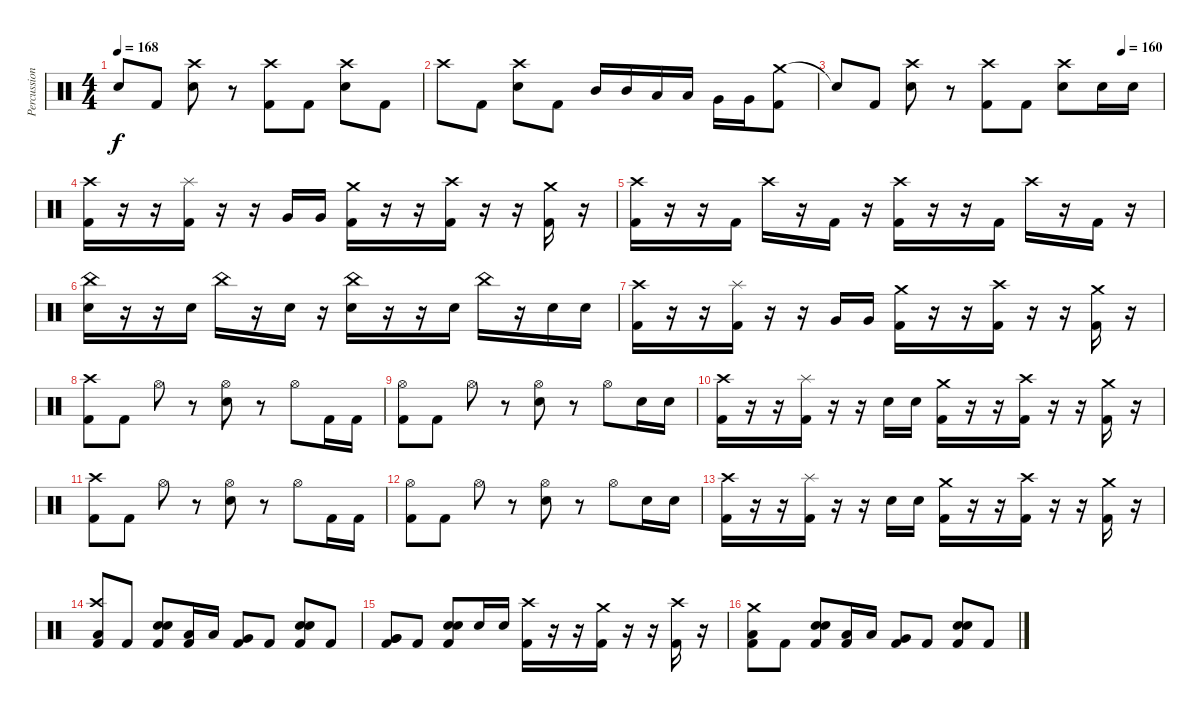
\track ("Percussion" "Percussion") {instrument percussion}
\staff {score}
\articulation defaults
\ts (4 4)
\tempo 168
\clef neutral
\ks c "Snare (hit)"{t}.8{dy f} "Kick (hit) 2".8
("Crash high (hit)" "Electric Snare (hit)").8 r.8 ("Crash high (hit)" "Kick (hit) 2").8 "Kick (hit) 2".8 ("Crash high (hit)" "Electric Snare (hit)").8 "Kick (hit) 2".8 |
"Crash high (hit)".8 "Kick (hit) 2".8 ("Crash high (hit)" "Electric Snare (hit)").8 "Kick (hit) 2".8 "Mid Tom (hit)".16 "Mid Tom (hit)".16 "Low Tom (hit)".16 "Low Tom (hit)".16 "Very Low Tom (hit)".16 "Very Low Tom (hit)".16 ("Crash medium (hit)" "Kick (hit) 2").8 |
\tempo (160 0.875)
"Snare (hit)"{t}.8 "Kick (hit) 2".8 ("Crash high (hit)" "Electric Snare (hit)").8 r.8 ("Crash high (hit)" "Kick (hit) 2").8 "Kick (hit) 2".8 ("Crash high (hit)" "Electric Snare (hit)").8 "Electric Snare (hit)".16 "Electric Snare (hit)".16 |
("Crash high (hit)" "Kick (hit) 2").16 r.16 r.16 ("Splash (hit)" "Kick (hit) 2").16 r.16 r.16 "Very Low Tom (hit)".16 "Very Low Tom (hit)".16 ("Crash medium (hit)" "Kick (hit) 2").16 r.16 r.16 ("Crash high (hit)" "Kick (hit) 2").16 r.16 r.16 ("Crash medium (hit)" "Kick (hit) 2").16 r.16 |
("Crash high (hit)" "Kick (hit) 2").16 r.16 r.16 "Kick (hit) 2".16 "Crash high (hit)".16 r.16 "Kick (hit) 2".16 r.16 ("Crash high (hit)" "Kick (hit) 2").16 r.16 r.16 "Kick (hit) 2".16 "Crash high (hit)".16 r.16 "Kick (hit) 2".16 r.16 |
("China (hit)" "Electric Snare (hit)").16 r.16 r.16 "Electric Snare (hit)".16 "China (hit)".16 r.16 "Electric Snare (hit)".16 r.16 ("China (hit)" "Electric Snare (hit)").16 r.16 r.16 "Electric Snare (hit)".16 "China (hit)".16 r.16 "Electric Snare (hit)".16 "Electric Snare (hit)".16 |
("Crash high (hit)" "Kick (hit) 2").16 r.16 r.16 ("Splash (hit)" "Kick (hit) 2").16 r.16 r.16 "Very Low Tom (hit)".16 "Very Low Tom (hit)".16 ("Crash medium (hit)" "Kick (hit) 2").16 r.16 r.16 ("Crash high (hit)" "Kick (hit) 2").16 r.16 r.16 ("Crash medium (hit)" "Kick (hit) 2").16 r.16 |
("Crash high (hit)" "Kick (hit) 2").8 "Kick (hit) 2".8 "Hi-Hat (open)".8 r.8 ("Hi-Hat (open)" "Electric Snare (hit)").8 r.8 "Hi-Hat (open)".8 "Kick (hit) 2".16 "Kick (hit) 2".16 |
("Hi-Hat (open)" "Kick (hit) 2").8 "Kick (hit) 2".8 "Hi-Hat (open)".8 r.8 ("Hi-Hat (open)" "Electric Snare (hit)").8 r.8 "Hi-Hat (open)".8 "Electric Snare (hit)".16 "Electric Snare (hit)".16 |
("Crash high (hit)" "Kick (hit) 2").16 r.16 r.16 ("Splash (hit)" "Kick (hit) 2").16 r.16 r.16 "Electric Snare (hit)".16 "Electric Snare (hit)".16 ("Crash medium (hit)" "Kick (hit) 2").16 r.16 r.16 ("Crash high (hit)" "Kick (hit) 2").16 r.16 r.16 ("Crash medium (hit)" "Kick (hit) 2").16 r.16 |
("Crash high (hit)" "Kick (hit) 2").8 "Kick (hit) 2".8 "Hi-Hat (open)".8 r.8 ("Hi-Hat (open)" "Electric Snare (hit)").8 r.8 "Hi-Hat (open)".8 "Kick (hit) 2".16 "Kick (hit) 2".16 |
("Hi-Hat (open)" "Kick (hit) 2").8 "Kick (hit) 2".8 "Hi-Hat (open)".8 r.8 ("Hi-Hat (open)" "Electric Snare (hit)").8 r.8 "Hi-Hat (open)".8 "Electric Snare (hit)".16 "Electric Snare (hit)".16 |
("Crash high (hit)" "Kick (hit) 2").16 r.16 r.16 ("Splash (hit)" "Kick (hit) 2").16 r.16 r.16 "Electric Snare (hit)".16 "Electric Snare (hit)".16 ("Crash medium (hit)" "Kick (hit) 2").16 r.16 r.16 ("Crash high (hit)" "Kick (hit) 2").16 r.16 r.16 ("Crash medium (hit)" "Kick (hit) 2").16 r.16 |
("Crash high (hit)" "Low Tom (hit)" "Kick (hit) 2").8 "Kick (hit) 2".8 ("Electric Snare (hit)" "Electric Snare (hit)" "Kick (hit) 2").8 ("Low Tom (hit)" "Kick (hit) 2").16 "Low Tom (hit)".16 ("Very Low Tom (hit)" "Kick (hit) 2").8 "Kick (hit) 2".8 ("Electric Snare (hit)" "Electric Snare (hit)" "Kick (hit) 2").8 "Kick (hit) 2".8 |
("Very Low Tom (hit)" "Very Low Tom (hit)" "Kick (hit) 2").8 "Kick (hit) 2".8 ("Electric Snare (hit)" "Electric Snare (hit)" "Kick (hit) 2").8 "Electric Snare (hit)".16 "Electric Snare (hit)".16 ("Crash high (hit)" "Kick (hit) 2").16 r.16 r.16 ("Crash medium (hit)" "Kick (hit) 2").16 r.16 r.16 ("Crash high (hit)" "Kick (hit) 2").16 r.16 |
("Crash medium (hit)" "Low Tom (hit)" "Kick (hit) 2").8 "Kick (hit) 2".8 ("Electric Snare (hit)" "Electric Snare (hit)" "Kick (hit) 2").8 ("Low Tom (hit)" "Kick (hit) 2").16 "Low Tom (hit)".16 ("Very Low Tom (hit)" "Kick (hit) 2").8 "Kick (hit) 2".8 ("Electric Snare (hit)" "Electric Snare (hit)" "Kick (hit) 2").8 "Kick (hit) 2".8
